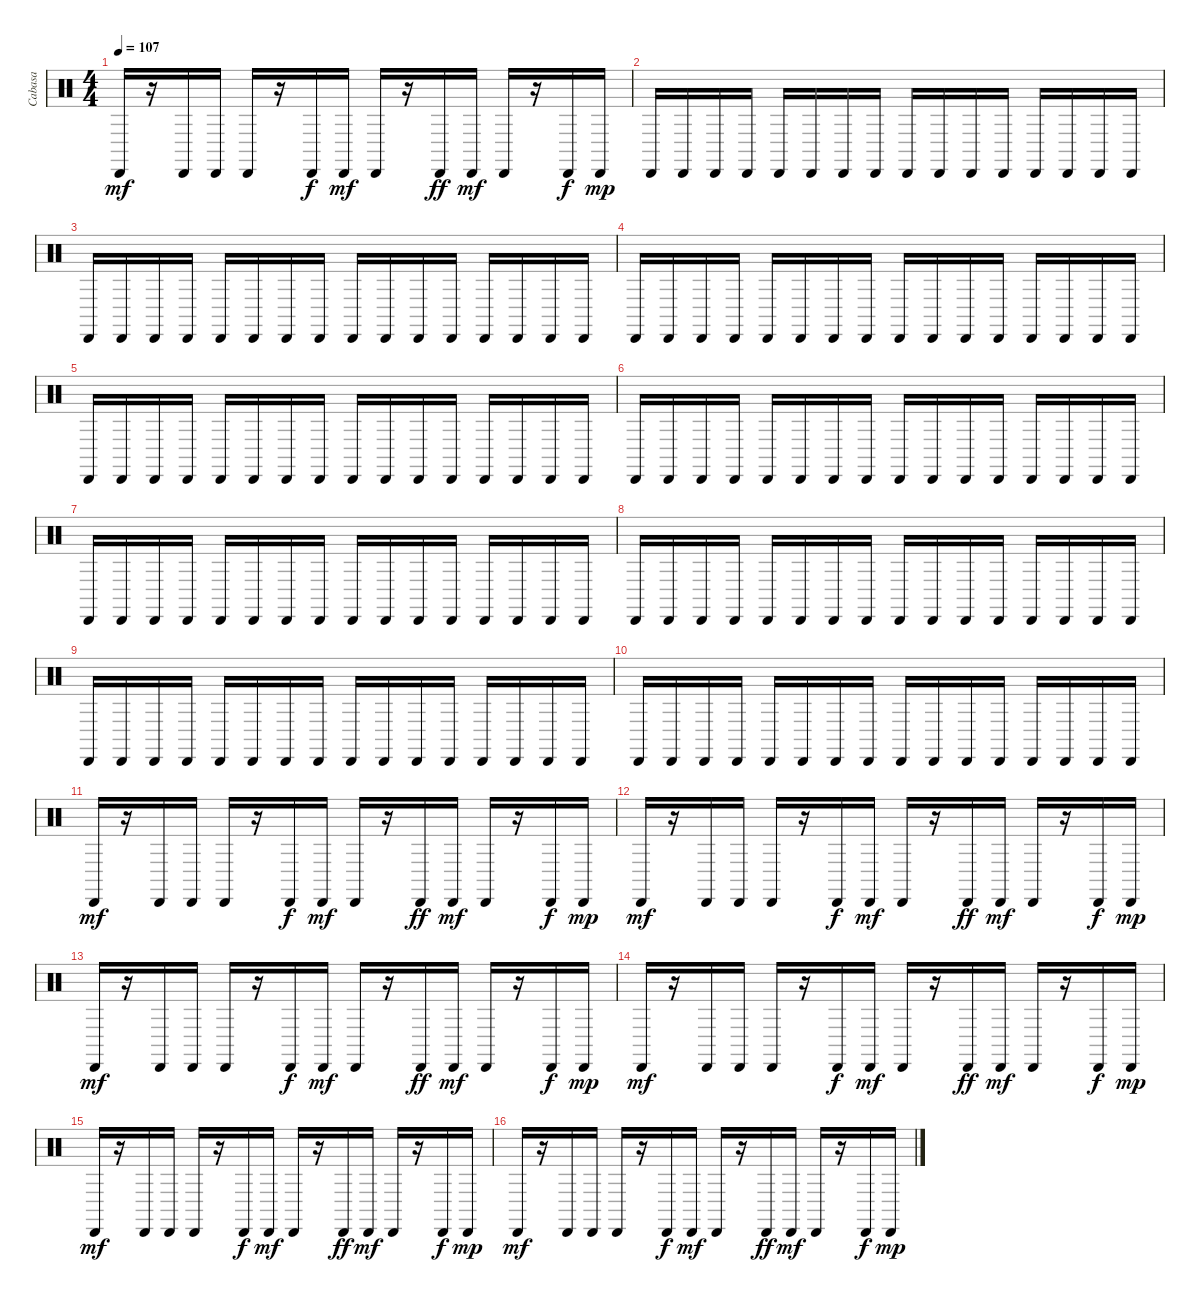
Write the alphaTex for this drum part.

\track ("Cabasa" "Cabasa") {instrument percussion}
\staff {score}
\articulation defaults
\ts (4 4)
\tempo 107
\clef neutral
\ks c "Cabasa (hit)".16{dy mf}
r.16 "Cabasa (hit)".16 "Cabasa (hit)".16 "Cabasa (hit)".16 r.16 "Cabasa (hit)".16{dy f} "Cabasa (hit)".16{dy mf} "Cabasa (hit)".16 r.16 "Cabasa (hit)".16{dy ff} "Cabasa (hit)".16{dy mf} "Cabasa (hit)".16 r.16 "Cabasa (hit)".16{dy f} "Cabasa (hit)".16{dy mp} |
"Cabasa (hit)".16 "Cabasa (hit)".16 "Cabasa (hit)".16 "Cabasa (hit)".16 "Cabasa (hit)".16 "Cabasa (hit)".16 "Cabasa (hit)".16 "Cabasa (hit)".16 "Cabasa (hit)".16 "Cabasa (hit)".16 "Cabasa (hit)".16 "Cabasa (hit)".16 "Cabasa (hit)".16 "Cabasa (hit)".16 "Cabasa (hit)".16 "Cabasa (hit)".16 |
"Cabasa (hit)".16 "Cabasa (hit)".16 "Cabasa (hit)".16 "Cabasa (hit)".16 "Cabasa (hit)".16 "Cabasa (hit)".16 "Cabasa (hit)".16 "Cabasa (hit)".16 "Cabasa (hit)".16 "Cabasa (hit)".16 "Cabasa (hit)".16 "Cabasa (hit)".16 "Cabasa (hit)".16 "Cabasa (hit)".16 "Cabasa (hit)".16 "Cabasa (hit)".16 |
"Cabasa (hit)".16 "Cabasa (hit)".16 "Cabasa (hit)".16 "Cabasa (hit)".16 "Cabasa (hit)".16 "Cabasa (hit)".16 "Cabasa (hit)".16 "Cabasa (hit)".16 "Cabasa (hit)".16 "Cabasa (hit)".16 "Cabasa (hit)".16 "Cabasa (hit)".16 "Cabasa (hit)".16 "Cabasa (hit)".16 "Cabasa (hit)".16 "Cabasa (hit)".16 |
"Cabasa (hit)".16 "Cabasa (hit)".16 "Cabasa (hit)".16 "Cabasa (hit)".16 "Cabasa (hit)".16 "Cabasa (hit)".16 "Cabasa (hit)".16 "Cabasa (hit)".16 "Cabasa (hit)".16 "Cabasa (hit)".16 "Cabasa (hit)".16 "Cabasa (hit)".16 "Cabasa (hit)".16 "Cabasa (hit)".16 "Cabasa (hit)".16 "Cabasa (hit)".16 |
"Cabasa (hit)".16 "Cabasa (hit)".16 "Cabasa (hit)".16 "Cabasa (hit)".16 "Cabasa (hit)".16 "Cabasa (hit)".16 "Cabasa (hit)".16 "Cabasa (hit)".16 "Cabasa (hit)".16 "Cabasa (hit)".16 "Cabasa (hit)".16 "Cabasa (hit)".16 "Cabasa (hit)".16 "Cabasa (hit)".16 "Cabasa (hit)".16 "Cabasa (hit)".16 |
"Cabasa (hit)".16 "Cabasa (hit)".16 "Cabasa (hit)".16 "Cabasa (hit)".16 "Cabasa (hit)".16 "Cabasa (hit)".16 "Cabasa (hit)".16 "Cabasa (hit)".16 "Cabasa (hit)".16 "Cabasa (hit)".16 "Cabasa (hit)".16 "Cabasa (hit)".16 "Cabasa (hit)".16 "Cabasa (hit)".16 "Cabasa (hit)".16 "Cabasa (hit)".16 |
"Cabasa (hit)".16 "Cabasa (hit)".16 "Cabasa (hit)".16 "Cabasa (hit)".16 "Cabasa (hit)".16 "Cabasa (hit)".16 "Cabasa (hit)".16 "Cabasa (hit)".16 "Cabasa (hit)".16 "Cabasa (hit)".16 "Cabasa (hit)".16 "Cabasa (hit)".16 "Cabasa (hit)".16 "Cabasa (hit)".16 "Cabasa (hit)".16 "Cabasa (hit)".16 |
"Cabasa (hit)".16 "Cabasa (hit)".16 "Cabasa (hit)".16 "Cabasa (hit)".16 "Cabasa (hit)".16 "Cabasa (hit)".16 "Cabasa (hit)".16 "Cabasa (hit)".16 "Cabasa (hit)".16 "Cabasa (hit)".16 "Cabasa (hit)".16 "Cabasa (hit)".16 "Cabasa (hit)".16 "Cabasa (hit)".16 "Cabasa (hit)".16 "Cabasa (hit)".16 |
"Cabasa (hit)".16 "Cabasa (hit)".16 "Cabasa (hit)".16 "Cabasa (hit)".16 "Cabasa (hit)".16 "Cabasa (hit)".16 "Cabasa (hit)".16 "Cabasa (hit)".16 "Cabasa (hit)".16 "Cabasa (hit)".16 "Cabasa (hit)".16 "Cabasa (hit)".16 "Cabasa (hit)".16 "Cabasa (hit)".16 "Cabasa (hit)".16 "Cabasa (hit)".16 |
"Cabasa (hit)".16{dy mf} r.16 "Cabasa (hit)".16 "Cabasa (hit)".16 "Cabasa (hit)".16 r.16 "Cabasa (hit)".16{dy f} "Cabasa (hit)".16{dy mf} "Cabasa (hit)".16 r.16 "Cabasa (hit)".16{dy ff} "Cabasa (hit)".16{dy mf} "Cabasa (hit)".16 r.16 "Cabasa (hit)".16{dy f} "Cabasa (hit)".16{dy mp} |
"Cabasa (hit)".16{dy mf} r.16 "Cabasa (hit)".16 "Cabasa (hit)".16 "Cabasa (hit)".16 r.16 "Cabasa (hit)".16{dy f} "Cabasa (hit)".16{dy mf} "Cabasa (hit)".16 r.16 "Cabasa (hit)".16{dy ff} "Cabasa (hit)".16{dy mf} "Cabasa (hit)".16 r.16 "Cabasa (hit)".16{dy f} "Cabasa (hit)".16{dy mp} |
"Cabasa (hit)".16{dy mf} r.16 "Cabasa (hit)".16 "Cabasa (hit)".16 "Cabasa (hit)".16 r.16 "Cabasa (hit)".16{dy f} "Cabasa (hit)".16{dy mf} "Cabasa (hit)".16 r.16 "Cabasa (hit)".16{dy ff} "Cabasa (hit)".16{dy mf} "Cabasa (hit)".16 r.16 "Cabasa (hit)".16{dy f} "Cabasa (hit)".16{dy mp} |
"Cabasa (hit)".16{dy mf} r.16 "Cabasa (hit)".16 "Cabasa (hit)".16 "Cabasa (hit)".16 r.16 "Cabasa (hit)".16{dy f} "Cabasa (hit)".16{dy mf} "Cabasa (hit)".16 r.16 "Cabasa (hit)".16{dy ff} "Cabasa (hit)".16{dy mf} "Cabasa (hit)".16 r.16 "Cabasa (hit)".16{dy f} "Cabasa (hit)".16{dy mp} |
"Cabasa (hit)".16{dy mf} r.16 "Cabasa (hit)".16 "Cabasa (hit)".16 "Cabasa (hit)".16 r.16 "Cabasa (hit)".16{dy f} "Cabasa (hit)".16{dy mf} "Cabasa (hit)".16 r.16 "Cabasa (hit)".16{dy ff} "Cabasa (hit)".16{dy mf} "Cabasa (hit)".16 r.16 "Cabasa (hit)".16{dy f} "Cabasa (hit)".16{dy mp} |
"Cabasa (hit)".16{dy mf} r.16 "Cabasa (hit)".16 "Cabasa (hit)".16 "Cabasa (hit)".16 r.16 "Cabasa (hit)".16{dy f} "Cabasa (hit)".16{dy mf} "Cabasa (hit)".16 r.16 "Cabasa (hit)".16{dy ff} "Cabasa (hit)".16{dy mf} "Cabasa (hit)".16 r.16 "Cabasa (hit)".16{dy f} "Cabasa (hit)".16{dy mp}
